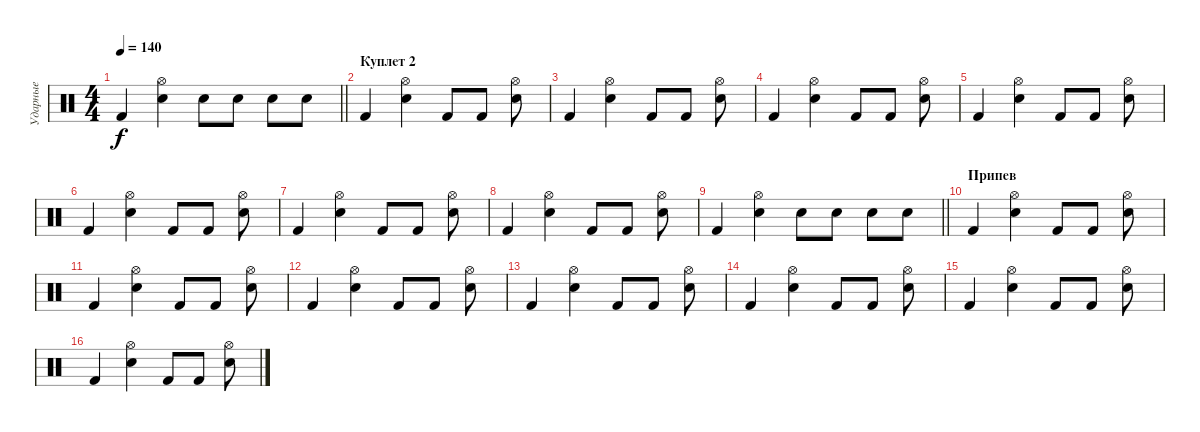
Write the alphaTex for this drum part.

\track ("Ударные" "Ударные") {instrument percussion}
\staff {score}
\articulation defaults
\ts (4 4)
\tempo 140
\clef neutral
\barLineRight lightlight
\ks c "Kick (hit) 2".4{dy f}
("Electric Snare (hit)" "Hi-Hat (open)").4 "Electric Snare (hit)".8 "Electric Snare (hit)".8 "Electric Snare (hit)".8 "Electric Snare (hit)".8 |
\section ("" "Куплет 2")
"Kick (hit) 2".4 ("Electric Snare (hit)" "Hi-Hat (open)").4 "Kick (hit) 2".8 "Kick (hit) 2".8 ("Electric Snare (hit)" "Hi-Hat (open)").8 |
"Kick (hit) 2".4 ("Electric Snare (hit)" "Hi-Hat (open)").4 "Kick (hit) 2".8 "Kick (hit) 2".8 ("Electric Snare (hit)" "Hi-Hat (open)").8 |
"Kick (hit) 2".4 ("Electric Snare (hit)" "Hi-Hat (open)").4 "Kick (hit) 2".8 "Kick (hit) 2".8 ("Electric Snare (hit)" "Hi-Hat (open)").8 |
"Kick (hit) 2".4 ("Electric Snare (hit)" "Hi-Hat (open)").4 "Kick (hit) 2".8 "Kick (hit) 2".8 ("Electric Snare (hit)" "Hi-Hat (open)").8 |
"Kick (hit) 2".4 ("Electric Snare (hit)" "Hi-Hat (open)").4 "Kick (hit) 2".8 "Kick (hit) 2".8 ("Electric Snare (hit)" "Hi-Hat (open)").8 |
"Kick (hit) 2".4 ("Electric Snare (hit)" "Hi-Hat (open)").4 "Kick (hit) 2".8 "Kick (hit) 2".8 ("Electric Snare (hit)" "Hi-Hat (open)").8 |
"Kick (hit) 2".4 ("Electric Snare (hit)" "Hi-Hat (open)").4 "Kick (hit) 2".8 "Kick (hit) 2".8 ("Electric Snare (hit)" "Hi-Hat (open)").8 |
\barLineRight lightlight "Kick (hit) 2".4
("Electric Snare (hit)" "Hi-Hat (open)").4 "Electric Snare (hit)".8 "Electric Snare (hit)".8 "Electric Snare (hit)".8 "Electric Snare (hit)".8 |
\section ("" "Припев")
"Kick (hit) 2".4 ("Electric Snare (hit)" "Hi-Hat (open)").4 "Kick (hit) 2".8 "Kick (hit) 2".8 ("Electric Snare (hit)" "Hi-Hat (open)").8 |
"Kick (hit) 2".4 ("Electric Snare (hit)" "Hi-Hat (open)").4 "Kick (hit) 2".8 "Kick (hit) 2".8 ("Electric Snare (hit)" "Hi-Hat (open)").8 |
"Kick (hit) 2".4 ("Electric Snare (hit)" "Hi-Hat (open)").4 "Kick (hit) 2".8 "Kick (hit) 2".8 ("Electric Snare (hit)" "Hi-Hat (open)").8 |
"Kick (hit) 2".4 ("Electric Snare (hit)" "Hi-Hat (open)").4 "Kick (hit) 2".8 "Kick (hit) 2".8 ("Electric Snare (hit)" "Hi-Hat (open)").8 |
"Kick (hit) 2".4 ("Electric Snare (hit)" "Hi-Hat (open)").4 "Kick (hit) 2".8 "Kick (hit) 2".8 ("Electric Snare (hit)" "Hi-Hat (open)").8 |
"Kick (hit) 2".4 ("Electric Snare (hit)" "Hi-Hat (open)").4 "Kick (hit) 2".8 "Kick (hit) 2".8 ("Electric Snare (hit)" "Hi-Hat (open)").8 |
"Kick (hit) 2".4 ("Electric Snare (hit)" "Hi-Hat (open)").4 "Kick (hit) 2".8 "Kick (hit) 2".8 ("Electric Snare (hit)" "Hi-Hat (open)").8
